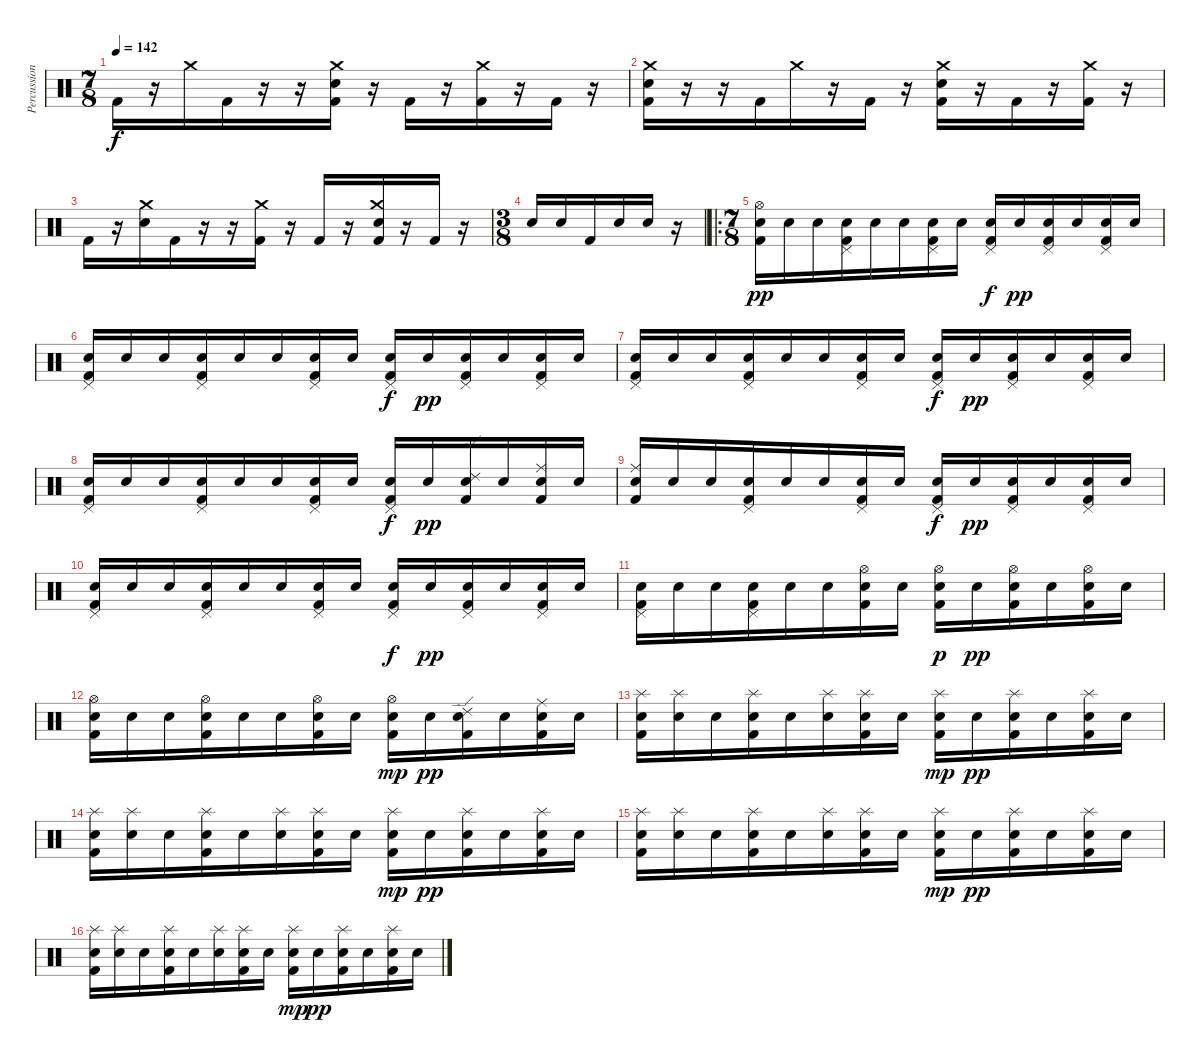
\track ("Percussions" "Percussion") {instrument percussion}
\staff {score}
\articulation defaults
\ts (7 8)
\tempo 142
\clef neutral
\ks c "Kick (hit) 2".16{dy f}
r.16 "Crash medium (hit)".16 "Kick (hit) 2".16 r.16 r.16 ("Crash medium (hit)" "Electric Snare (hit)" "Kick (hit) 2").16 r.16 "Kick (hit) 2".16 r.16 ("Crash medium (hit)" "Kick (hit) 2").16 r.16 "Kick (hit) 2".16 r.16 |
("Crash medium (hit)" "Electric Snare (hit)" "Kick (hit) 2").16 r.16 r.16 "Kick (hit) 2".16 "Crash medium (hit)".16 r.16 "Kick (hit) 2".16 r.16 ("Crash medium (hit)" "Electric Snare (hit)" "Kick (hit) 2").16 r.16 "Kick (hit) 2".16 r.16 ("Crash medium (hit)" "Kick (hit) 2").16 r.16 |
"Kick (hit) 2".16 r.16 ("Crash medium (hit)" "Electric Snare (hit)").16 "Kick (hit) 2".16 r.16 r.16 ("Crash medium (hit)" "Kick (hit) 2").16 r.16 "Kick (hit) 2".16 r.16 ("Crash medium (hit)" "Electric Snare (hit)" "Kick (hit) 2").16 r.16 "Kick (hit) 2".16 r.16 |
\ts (3 8)
"Electric Snare (hit)".16 "Electric Snare (hit)".16 "Kick (hit) 2".16 "Electric Snare (hit)".16 "Electric Snare (hit)".16 r.16 |
\ro
\ts (7 8)
("Hi-Hat (open)" "Electric Snare (hit)" "Kick (hit) 2").16{dy pp} "Electric Snare (hit)".16 "Electric Snare (hit)".16 ("Pedal Hi-Hat (hit)" "Electric Snare (hit)" "Kick (hit) 2").16 "Electric Snare (hit)".16 "Electric Snare (hit)".16 ("Pedal Hi-Hat (hit)" "Electric Snare (hit)" "Kick (hit) 2").16 "Electric Snare (hit)".16 ("Pedal Hi-Hat (hit)" "Electric Snare (hit)" "Kick (hit) 2").16{dy f} "Electric Snare (hit)".16{dy pp} ("Pedal Hi-Hat (hit)" "Electric Snare (hit)" "Kick (hit) 2").16 "Electric Snare (hit)".16 ("Pedal Hi-Hat (hit)" "Electric Snare (hit)" "Kick (hit) 2").16 "Electric Snare (hit)".16 |
("Pedal Hi-Hat (hit)" "Electric Snare (hit)" "Kick (hit) 2").16 "Electric Snare (hit)".16 "Electric Snare (hit)".16 ("Pedal Hi-Hat (hit)" "Electric Snare (hit)" "Kick (hit) 2").16 "Electric Snare (hit)".16 "Electric Snare (hit)".16 ("Pedal Hi-Hat (hit)" "Electric Snare (hit)" "Kick (hit) 2").16 "Electric Snare (hit)".16 ("Pedal Hi-Hat (hit)" "Electric Snare (hit)" "Kick (hit) 2").16{dy f} "Electric Snare (hit)".16{dy pp} ("Pedal Hi-Hat (hit)" "Electric Snare (hit)" "Kick (hit) 2").16 "Electric Snare (hit)".16 ("Pedal Hi-Hat (hit)" "Electric Snare (hit)" "Kick (hit) 2").16 "Electric Snare (hit)".16 |
("Pedal Hi-Hat (hit)" "Electric Snare (hit)" "Kick (hit) 2").16 "Electric Snare (hit)".16 "Electric Snare (hit)".16 ("Pedal Hi-Hat (hit)" "Electric Snare (hit)" "Kick (hit) 2").16 "Electric Snare (hit)".16 "Electric Snare (hit)".16 ("Pedal Hi-Hat (hit)" "Electric Snare (hit)" "Kick (hit) 2").16 "Electric Snare (hit)".16 ("Pedal Hi-Hat (hit)" "Electric Snare (hit)" "Kick (hit) 2").16{dy f} "Electric Snare (hit)".16{dy pp} ("Pedal Hi-Hat (hit)" "Electric Snare (hit)" "Kick (hit) 2").16 "Electric Snare (hit)".16 ("Pedal Hi-Hat (hit)" "Electric Snare (hit)" "Kick (hit) 2").16 "Electric Snare (hit)".16 |
("Pedal Hi-Hat (hit)" "Electric Snare (hit)" "Kick (hit) 2").16 "Electric Snare (hit)".16 "Electric Snare (hit)".16 ("Pedal Hi-Hat (hit)" "Electric Snare (hit)" "Kick (hit) 2").16 "Electric Snare (hit)".16 "Electric Snare (hit)".16 ("Pedal Hi-Hat (hit)" "Electric Snare (hit)" "Kick (hit) 2").16 "Electric Snare (hit)".16 ("Pedal Hi-Hat (hit)" "Electric Snare (hit)" "Kick (hit) 2").16{dy f} "Electric Snare (hit)".16{dy pp} ("Ride (edge) 2" "Electric Snare (hit)" "Kick (hit) 2").16 "Electric Snare (hit)".16 ("Ride (middle)" "Electric Snare (hit)" "Kick (hit) 2").16 "Electric Snare (hit)".16 |
("Ride (middle)" "Electric Snare (hit)" "Kick (hit) 2").16 "Electric Snare (hit)".16 "Electric Snare (hit)".16 ("Pedal Hi-Hat (hit)" "Electric Snare (hit)" "Kick (hit) 2").16 "Electric Snare (hit)".16 "Electric Snare (hit)".16 ("Pedal Hi-Hat (hit)" "Electric Snare (hit)" "Kick (hit) 2").16 "Electric Snare (hit)".16 ("Pedal Hi-Hat (hit)" "Electric Snare (hit)" "Kick (hit) 2").16{dy f} "Electric Snare (hit)".16{dy pp} ("Pedal Hi-Hat (hit)" "Electric Snare (hit)" "Kick (hit) 2").16 "Electric Snare (hit)".16 ("Pedal Hi-Hat (hit)" "Electric Snare (hit)" "Kick (hit) 2").16 "Electric Snare (hit)".16 |
("Pedal Hi-Hat (hit)" "Electric Snare (hit)" "Kick (hit) 2").16 "Electric Snare (hit)".16 "Electric Snare (hit)".16 ("Pedal Hi-Hat (hit)" "Electric Snare (hit)" "Kick (hit) 2").16 "Electric Snare (hit)".16 "Electric Snare (hit)".16 ("Pedal Hi-Hat (hit)" "Electric Snare (hit)" "Kick (hit) 2").16 "Electric Snare (hit)".16 ("Pedal Hi-Hat (hit)" "Electric Snare (hit)" "Kick (hit) 2").16{dy f} "Electric Snare (hit)".16{dy pp} ("Pedal Hi-Hat (hit)" "Electric Snare (hit)" "Kick (hit) 2").16 "Electric Snare (hit)".16 ("Pedal Hi-Hat (hit)" "Electric Snare (hit)" "Kick (hit) 2").16 "Electric Snare (hit)".16 |
("Pedal Hi-Hat (hit)" "Electric Snare (hit)" "Kick (hit) 2").16 "Electric Snare (hit)".16 "Electric Snare (hit)".16 ("Pedal Hi-Hat (hit)" "Electric Snare (hit)" "Kick (hit) 2").16 "Electric Snare (hit)".16 "Electric Snare (hit)".16 ("Hi-Hat (open)" "Electric Snare (hit)" "Kick (hit) 2").16 "Electric Snare (hit)".16 ("Hi-Hat (open)" "Electric Snare (hit)" "Kick (hit) 2").16{dy p} "Electric Snare (hit)".16{dy pp} ("Hi-Hat (open)" "Electric Snare (hit)" "Kick (hit) 2").16 "Electric Snare (hit)".16 ("Hi-Hat (open)" "Electric Snare (hit)" "Kick (hit) 2").16 "Electric Snare (hit)".16 |
("Hi-Hat (open)" "Electric Snare (hit)" "Kick (hit) 2").16 "Electric Snare (hit)".16 "Electric Snare (hit)".16 ("Hi-Hat (open)" "Electric Snare (hit)" "Kick (hit) 2").16 "Electric Snare (hit)".16 "Electric Snare (hit)".16 ("Hi-Hat (open)" "Electric Snare (hit)" "Kick (hit) 2").16 "Electric Snare (hit)".16 ("Hi-Hat (open)" "Electric Snare (hit)" "Kick (hit) 2").16{dy mp} "Electric Snare (hit)".16{dy pp} ("Ride (edge) 2" "Electric Snare (hit)" "Kick (hit) 2").16 "Electric Snare (hit)".16 ("Ride (middle)" "Electric Snare (hit)" "Kick (hit) 2").16 "Electric Snare (hit)".16 |
("Splash (hit)" "Electric Snare (hit)" "Kick (hit) 2").16 ("Splash (hit)" "Electric Snare (hit)").16 "Electric Snare (hit)".16 ("Splash (hit)" "Electric Snare (hit)" "Kick (hit) 2").16 "Electric Snare (hit)".16 ("Splash (hit)" "Electric Snare (hit)").16 ("Splash (hit)" "Electric Snare (hit)" "Kick (hit) 2").16 "Electric Snare (hit)".16 ("Splash (hit)" "Electric Snare (hit)" "Kick (hit) 2").16{dy mp} "Electric Snare (hit)".16{dy pp} ("Splash (hit)" "Electric Snare (hit)" "Kick (hit) 2").16 "Electric Snare (hit)".16 ("Splash (hit)" "Electric Snare (hit)" "Kick (hit) 2").16 "Electric Snare (hit)".16 |
("Splash (hit)" "Electric Snare (hit)" "Kick (hit) 2").16 ("Splash (hit)" "Electric Snare (hit)").16 "Electric Snare (hit)".16 ("Splash (hit)" "Electric Snare (hit)" "Kick (hit) 2").16 "Electric Snare (hit)".16 ("Splash (hit)" "Electric Snare (hit)").16 ("Splash (hit)" "Electric Snare (hit)" "Kick (hit) 2").16 "Electric Snare (hit)".16 ("Splash (hit)" "Electric Snare (hit)" "Kick (hit) 2").16{dy mp} "Electric Snare (hit)".16{dy pp} ("Splash (hit)" "Electric Snare (hit)" "Kick (hit) 2").16 "Electric Snare (hit)".16 ("Splash (hit)" "Electric Snare (hit)" "Kick (hit) 2").16 "Electric Snare (hit)".16 |
("Splash (hit)" "Electric Snare (hit)" "Kick (hit) 2").16 ("Splash (hit)" "Electric Snare (hit)").16 "Electric Snare (hit)".16 ("Splash (hit)" "Electric Snare (hit)" "Kick (hit) 2").16 "Electric Snare (hit)".16 ("Splash (hit)" "Electric Snare (hit)").16 ("Splash (hit)" "Electric Snare (hit)" "Kick (hit) 2").16 "Electric Snare (hit)".16 ("Splash (hit)" "Electric Snare (hit)" "Kick (hit) 2").16{dy mp} "Electric Snare (hit)".16{dy pp} ("Splash (hit)" "Electric Snare (hit)" "Kick (hit) 2").16 "Electric Snare (hit)".16 ("Splash (hit)" "Electric Snare (hit)" "Kick (hit) 2").16 "Electric Snare (hit)".16 |
("Splash (hit)" "Electric Snare (hit)" "Kick (hit) 2").16 ("Splash (hit)" "Electric Snare (hit)").16 "Electric Snare (hit)".16 ("Splash (hit)" "Electric Snare (hit)" "Kick (hit) 2").16 "Electric Snare (hit)".16 ("Splash (hit)" "Electric Snare (hit)").16 ("Splash (hit)" "Electric Snare (hit)" "Kick (hit) 2").16 "Electric Snare (hit)".16 ("Splash (hit)" "Electric Snare (hit)" "Kick (hit) 2").16{dy mp} "Electric Snare (hit)".16{dy pp} ("Splash (hit)" "Electric Snare (hit)" "Kick (hit) 2").16 "Electric Snare (hit)".16 ("Splash (hit)" "Electric Snare (hit)" "Kick (hit) 2").16 "Electric Snare (hit)".16
